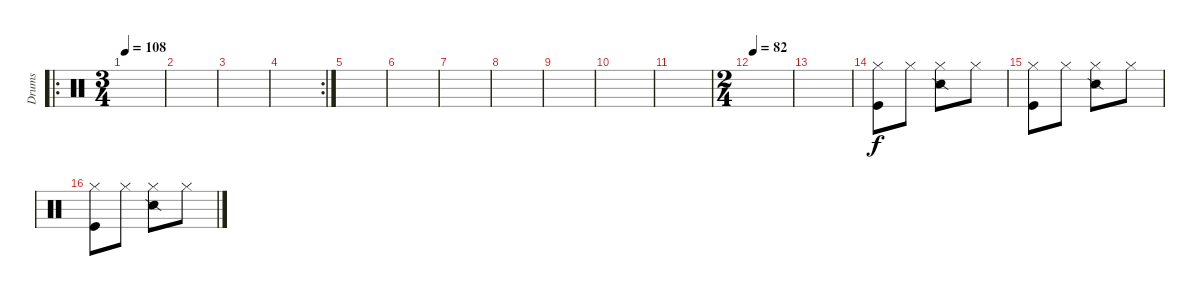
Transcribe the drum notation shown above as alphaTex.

\track ("Drums" "Drums") {instrument percussion}
\staff {score}
\articulation defaults
\ro
\ts (3 4)
\tempo 108
\clef neutral
\ks c
|
|
|
\rc 2
|
|
|
|
|
|
|
|
\ts (2 4)
\tempo 82
|
|
("Hi-Hat (closed)" "Kick (hit)").8 "Hi-Hat (closed)".8 ("Hi-Hat (closed)" "Snare (side stick) 2").8 "Hi-Hat (closed)".8 |
("Hi-Hat (closed)" "Kick (hit)").8 "Hi-Hat (closed)".8 ("Hi-Hat (closed)" "Snare (side stick) 2").8 "Hi-Hat (closed)".8 |
("Hi-Hat (closed)" "Kick (hit)").8 "Hi-Hat (closed)".8 ("Hi-Hat (closed)" "Snare (side stick) 2").8 "Hi-Hat (closed)".8
